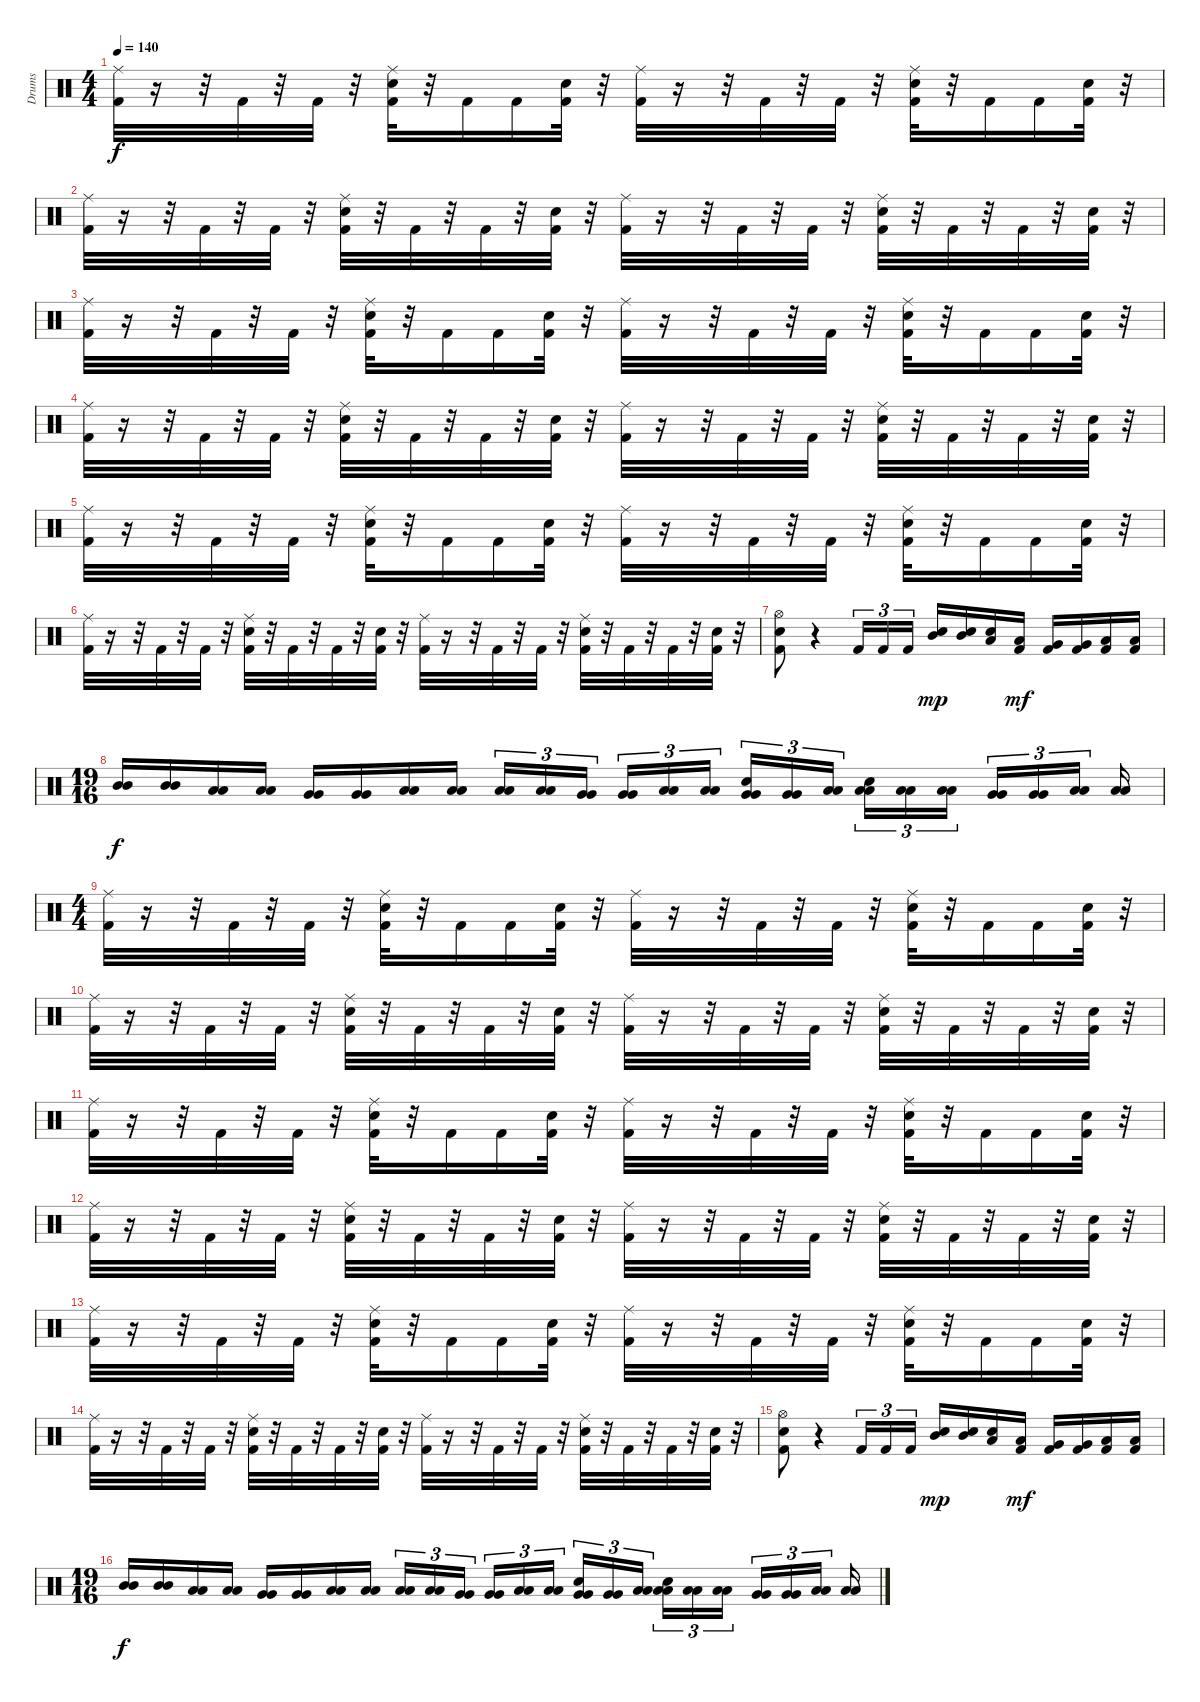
\track ("Drums" "Drums") {instrument percussion}
\staff {score}
\articulation defaults
\ts (4 4)
\tempo 140
\clef neutral
\ks c
("Ride (middle)" "Kick (hit) 2").32{dy f} r.16 r.32 "Kick (hit) 2".32 r.32 "Kick (hit) 2".32 r.32 ("Ride (middle)" "Snare (hit) 2" "Kick (hit) 2").32 r.32 "Kick (hit) 2".16 "Kick (hit) 2".16 ("Snare (hit) 2" "Kick (hit) 2").32 r.32 ("Ride (middle)" "Kick (hit) 2").32 r.16 r.32 "Kick (hit) 2".32 r.32 "Kick (hit) 2".32 r.32 ("Ride (middle)" "Snare (hit) 2" "Kick (hit) 2").32 r.32 "Kick (hit) 2".16 "Kick (hit) 2".16 ("Snare (hit) 2" "Kick (hit) 2").32 r.32 |
("Ride (middle)" "Kick (hit) 2").32 r.16 r.32 "Kick (hit) 2".32 r.32 "Kick (hit) 2".32 r.32 ("Ride (middle)" "Snare (hit) 2" "Kick (hit) 2").32 r.32 "Kick (hit) 2".32 r.32 "Kick (hit) 2".32 r.32 ("Electric Snare (hit)" "Kick (hit) 2").32 r.32 ("Ride (middle)" "Kick (hit) 2").32 r.16 r.32 "Kick (hit) 2".32 r.32 "Kick (hit) 2".32 r.32 ("Ride (middle)" "Snare (hit) 2" "Kick (hit) 2").32 r.32 "Kick (hit) 2".32 r.32 "Kick (hit) 2".32 r.32 ("Electric Snare (hit)" "Kick (hit) 2").32 r.32 |
("Ride (middle)" "Kick (hit) 2").32 r.16 r.32 "Kick (hit) 2".32 r.32 "Kick (hit) 2".32 r.32 ("Ride (middle)" "Snare (hit) 2" "Kick (hit) 2").32 r.32 "Kick (hit) 2".16 "Kick (hit) 2".16 ("Snare (hit) 2" "Kick (hit) 2").32 r.32 ("Ride (middle)" "Kick (hit) 2").32 r.16 r.32 "Kick (hit) 2".32 r.32 "Kick (hit) 2".32 r.32 ("Ride (middle)" "Snare (hit) 2" "Kick (hit) 2").32 r.32 "Kick (hit) 2".16 "Kick (hit) 2".16 ("Snare (hit) 2" "Kick (hit) 2").32 r.32 |
("Ride (middle)" "Kick (hit) 2").32 r.16 r.32 "Kick (hit) 2".32 r.32 "Kick (hit) 2".32 r.32 ("Ride (middle)" "Snare (hit) 2" "Kick (hit) 2").32 r.32 "Kick (hit) 2".32 r.32 "Kick (hit) 2".32 r.32 ("Electric Snare (hit)" "Kick (hit) 2").32 r.32 ("Ride (middle)" "Kick (hit) 2").32 r.16 r.32 "Kick (hit) 2".32 r.32 "Kick (hit) 2".32 r.32 ("Ride (middle)" "Snare (hit) 2" "Kick (hit) 2").32 r.32 "Kick (hit) 2".32 r.32 "Kick (hit) 2".32 r.32 ("Electric Snare (hit)" "Kick (hit) 2").32 r.32 |
("Ride (middle)" "Kick (hit) 2").32 r.16 r.32 "Kick (hit) 2".32 r.32 "Kick (hit) 2".32 r.32 ("Ride (middle)" "Snare (hit) 2" "Kick (hit) 2").32 r.32 "Kick (hit) 2".16 "Kick (hit) 2".16 ("Snare (hit) 2" "Kick (hit) 2").32 r.32 ("Ride (middle)" "Kick (hit) 2").32 r.16 r.32 "Kick (hit) 2".32 r.32 "Kick (hit) 2".32 r.32 ("Ride (middle)" "Snare (hit) 2" "Kick (hit) 2").32 r.32 "Kick (hit) 2".16 "Kick (hit) 2".16 ("Snare (hit) 2" "Kick (hit) 2").32 r.32 |
("Ride (middle)" "Kick (hit) 2").32 r.16 r.32 "Kick (hit) 2".32 r.32 "Kick (hit) 2".32 r.32 ("Ride (middle)" "Snare (hit) 2" "Kick (hit) 2").32 r.32 "Kick (hit) 2".32 r.32 "Kick (hit) 2".32 r.32 ("Electric Snare (hit)" "Kick (hit) 2").32 r.32 ("Ride (middle)" "Kick (hit) 2").32 r.16 r.32 "Kick (hit) 2".32 r.32 "Kick (hit) 2".32 r.32 ("Ride (middle)" "Snare (hit) 2" "Kick (hit) 2").32 r.32 "Kick (hit) 2".32 r.32 "Kick (hit) 2".32 r.32 ("Electric Snare (hit)" "Kick (hit) 2").32 r.32 |
("Hi-Hat (open)" "Kick (hit) 2" "Snare (hit) 2").8 r.4 "Kick (hit) 2".16{tu (3 2)} "Kick (hit) 2".16{tu (3 2)} "Kick (hit) 2".16{tu (3 2)} ("Mid Tom (hit)" "Snare (hit) 2").16{dy mp} ("Mid Tom (hit)" "Snare (hit) 2").16 ("Low Tom (hit)" "Snare (hit) 2").16 ("Low Tom (hit)" "Kick (hit) 2").16{dy mf} ("Very Low Tom (hit)" "Kick (hit) 2").16 ("Very Low Tom (hit)" "Kick (hit) 2").16 ("Low Floor Tom (hit)" "Kick (hit) 2").16 ("Low Floor Tom (hit)" "Kick (hit) 2").16 |
\ts (19 16)
("Mid Tom (hit)" "Mid Tom (hit)").16{dy f} ("Mid Tom (hit)" "Mid Tom (hit)").16 ("Low Tom (hit)" "Low Tom (hit)").16 ("Low Tom (hit)" "Low Tom (hit)").16 ("Very Low Tom (hit)" "Very Low Tom (hit)").16 ("Very Low Tom (hit)" "Very Low Tom (hit)").16 ("Low Floor Tom (hit)" "Low Floor Tom (hit)").16 ("Low Floor Tom (hit)" "Low Floor Tom (hit)").16 ("Low Tom (hit)" "Low Tom (hit)").16{tu (3 2)} ("Low Tom (hit)" "Low Tom (hit)").16{tu (3 2)} ("Very Low Tom (hit)" "Very Low Tom (hit)").16{tu (3 2)} ("Very Low Tom (hit)" "Very Low Tom (hit)").16{tu (3 2)} ("Low Floor Tom (hit)" "Low Floor Tom (hit)").16{tu (3 2)} ("Low Floor Tom (hit)" "Low Floor Tom (hit)").16{tu (3 2)} ("Snare (hit) 2" "Very Low Tom (hit)" "Very Low Tom (hit)").16{tu (3 2)} ("Very Low Tom (hit)" "Very Low Tom (hit)").16{tu (3 2)} ("Low Floor Tom (hit)" "Low Floor Tom (hit)").16{tu (3 2)} ("Snare (hit) 2" "Low Floor Tom (hit)" "Low Floor Tom (hit)").16{tu (3 2)} ("Low Floor Tom (hit)" "Low Floor Tom (hit)").16{tu (3 2)} ("Low Floor Tom (hit)" "Low Floor Tom (hit)").16{tu (3 2)} ("Very Low Tom (hit)" "Very Low Tom (hit)").16{tu (3 2)} ("Very Low Tom (hit)" "Very Low Tom (hit)").16{tu (3 2)} ("Low Floor Tom (hit)" "Low Floor Tom (hit)").16{tu (3 2)} ("Low Floor Tom (hit)" "Low Floor Tom (hit)").16 |
\ts (4 4)
("Ride (middle)" "Kick (hit) 2").32 r.16 r.32 "Kick (hit) 2".32 r.32 "Kick (hit) 2".32 r.32 ("Ride (middle)" "Snare (hit) 2" "Kick (hit) 2").32 r.32 "Kick (hit) 2".16 "Kick (hit) 2".16 ("Snare (hit) 2" "Kick (hit) 2").32 r.32 ("Ride (middle)" "Kick (hit) 2").32 r.16 r.32 "Kick (hit) 2".32 r.32 "Kick (hit) 2".32 r.32 ("Ride (middle)" "Snare (hit) 2" "Kick (hit) 2").32 r.32 "Kick (hit) 2".16 "Kick (hit) 2".16 ("Snare (hit) 2" "Kick (hit) 2").32 r.32 |
("Ride (middle)" "Kick (hit) 2").32 r.16 r.32 "Kick (hit) 2".32 r.32 "Kick (hit) 2".32 r.32 ("Ride (middle)" "Snare (hit) 2" "Kick (hit) 2").32 r.32 "Kick (hit) 2".32 r.32 "Kick (hit) 2".32 r.32 ("Electric Snare (hit)" "Kick (hit) 2").32 r.32 ("Ride (middle)" "Kick (hit) 2").32 r.16 r.32 "Kick (hit) 2".32 r.32 "Kick (hit) 2".32 r.32 ("Ride (middle)" "Snare (hit) 2" "Kick (hit) 2").32 r.32 "Kick (hit) 2".32 r.32 "Kick (hit) 2".32 r.32 ("Electric Snare (hit)" "Kick (hit) 2").32 r.32 |
("Ride (middle)" "Kick (hit) 2").32 r.16 r.32 "Kick (hit) 2".32 r.32 "Kick (hit) 2".32 r.32 ("Ride (middle)" "Snare (hit) 2" "Kick (hit) 2").32 r.32 "Kick (hit) 2".16 "Kick (hit) 2".16 ("Snare (hit) 2" "Kick (hit) 2").32 r.32 ("Ride (middle)" "Kick (hit) 2").32 r.16 r.32 "Kick (hit) 2".32 r.32 "Kick (hit) 2".32 r.32 ("Ride (middle)" "Snare (hit) 2" "Kick (hit) 2").32 r.32 "Kick (hit) 2".16 "Kick (hit) 2".16 ("Snare (hit) 2" "Kick (hit) 2").32 r.32 |
("Ride (middle)" "Kick (hit) 2").32 r.16 r.32 "Kick (hit) 2".32 r.32 "Kick (hit) 2".32 r.32 ("Ride (middle)" "Snare (hit) 2" "Kick (hit) 2").32 r.32 "Kick (hit) 2".32 r.32 "Kick (hit) 2".32 r.32 ("Electric Snare (hit)" "Kick (hit) 2").32 r.32 ("Ride (middle)" "Kick (hit) 2").32 r.16 r.32 "Kick (hit) 2".32 r.32 "Kick (hit) 2".32 r.32 ("Ride (middle)" "Snare (hit) 2" "Kick (hit) 2").32 r.32 "Kick (hit) 2".32 r.32 "Kick (hit) 2".32 r.32 ("Electric Snare (hit)" "Kick (hit) 2").32 r.32 |
("Ride (middle)" "Kick (hit) 2").32 r.16 r.32 "Kick (hit) 2".32 r.32 "Kick (hit) 2".32 r.32 ("Ride (middle)" "Snare (hit) 2" "Kick (hit) 2").32 r.32 "Kick (hit) 2".16 "Kick (hit) 2".16 ("Snare (hit) 2" "Kick (hit) 2").32 r.32 ("Ride (middle)" "Kick (hit) 2").32 r.16 r.32 "Kick (hit) 2".32 r.32 "Kick (hit) 2".32 r.32 ("Ride (middle)" "Snare (hit) 2" "Kick (hit) 2").32 r.32 "Kick (hit) 2".16 "Kick (hit) 2".16 ("Snare (hit) 2" "Kick (hit) 2").32 r.32 |
("Ride (middle)" "Kick (hit) 2").32 r.16 r.32 "Kick (hit) 2".32 r.32 "Kick (hit) 2".32 r.32 ("Ride (middle)" "Snare (hit) 2" "Kick (hit) 2").32 r.32 "Kick (hit) 2".32 r.32 "Kick (hit) 2".32 r.32 ("Electric Snare (hit)" "Kick (hit) 2").32 r.32 ("Ride (middle)" "Kick (hit) 2").32 r.16 r.32 "Kick (hit) 2".32 r.32 "Kick (hit) 2".32 r.32 ("Ride (middle)" "Snare (hit) 2" "Kick (hit) 2").32 r.32 "Kick (hit) 2".32 r.32 "Kick (hit) 2".32 r.32 ("Electric Snare (hit)" "Kick (hit) 2").32 r.32 |
("Hi-Hat (open)" "Kick (hit) 2" "Snare (hit) 2").8 r.4 "Kick (hit) 2".16{tu (3 2)} "Kick (hit) 2".16{tu (3 2)} "Kick (hit) 2".16{tu (3 2)} ("Mid Tom (hit)" "Snare (hit) 2").16{dy mp} ("Mid Tom (hit)" "Snare (hit) 2").16 ("Low Tom (hit)" "Snare (hit) 2").16 ("Low Tom (hit)" "Kick (hit) 2").16{dy mf} ("Very Low Tom (hit)" "Kick (hit) 2").16 ("Very Low Tom (hit)" "Kick (hit) 2").16 ("Low Floor Tom (hit)" "Kick (hit) 2").16 ("Low Floor Tom (hit)" "Kick (hit) 2").16 |
\ts (19 16)
("Mid Tom (hit)" "Mid Tom (hit)").16{dy f} ("Mid Tom (hit)" "Mid Tom (hit)").16 ("Low Tom (hit)" "Low Tom (hit)").16 ("Low Tom (hit)" "Low Tom (hit)").16 ("Very Low Tom (hit)" "Very Low Tom (hit)").16 ("Very Low Tom (hit)" "Very Low Tom (hit)").16 ("Low Floor Tom (hit)" "Low Floor Tom (hit)").16 ("Low Floor Tom (hit)" "Low Floor Tom (hit)").16 ("Low Tom (hit)" "Low Tom (hit)").16{tu (3 2)} ("Low Tom (hit)" "Low Tom (hit)").16{tu (3 2)} ("Very Low Tom (hit)" "Very Low Tom (hit)").16{tu (3 2)} ("Very Low Tom (hit)" "Very Low Tom (hit)").16{tu (3 2)} ("Low Floor Tom (hit)" "Low Floor Tom (hit)").16{tu (3 2)} ("Low Floor Tom (hit)" "Low Floor Tom (hit)").16{tu (3 2)} ("Snare (hit) 2" "Very Low Tom (hit)" "Very Low Tom (hit)").16{tu (3 2)} ("Very Low Tom (hit)" "Very Low Tom (hit)").16{tu (3 2)} ("Low Floor Tom (hit)" "Low Floor Tom (hit)").16{tu (3 2)} ("Snare (hit) 2" "Low Floor Tom (hit)" "Low Floor Tom (hit)").16{tu (3 2)} ("Low Floor Tom (hit)" "Low Floor Tom (hit)").16{tu (3 2)} ("Low Floor Tom (hit)" "Low Floor Tom (hit)").16{tu (3 2)} ("Very Low Tom (hit)" "Very Low Tom (hit)").16{tu (3 2)} ("Very Low Tom (hit)" "Very Low Tom (hit)").16{tu (3 2)} ("Low Floor Tom (hit)" "Low Floor Tom (hit)").16{tu (3 2)} ("Low Floor Tom (hit)" "Low Floor Tom (hit)").16
